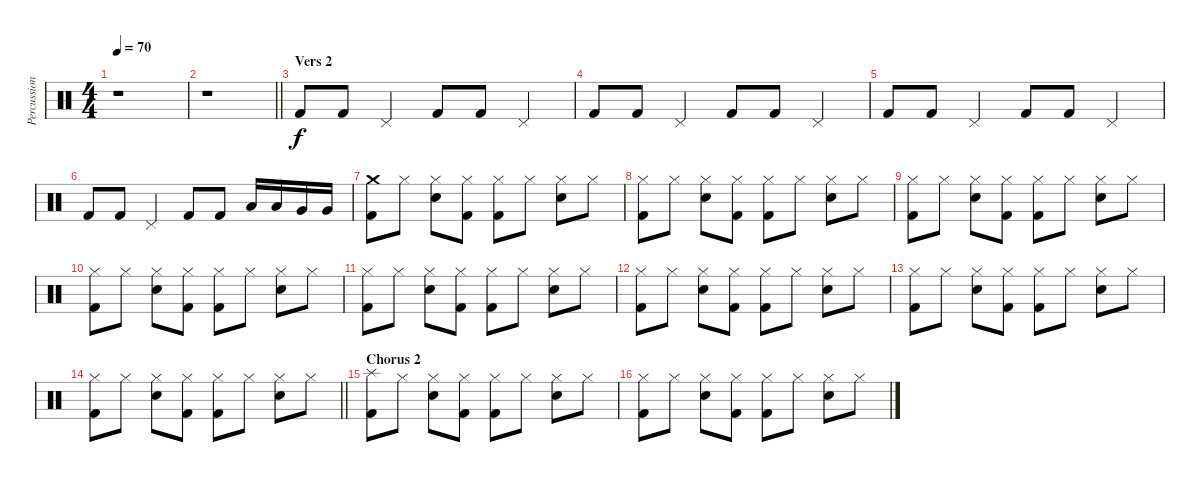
\track ("Percussion" "Percussion") {instrument percussion}
\staff {score}
\articulation defaults
\ts (4 4)
\tempo 70
\clef neutral
\ks c
r.1{dy f} |
\barLineRight lightlight
r.1 |
\section ("" "Vers 2")
"Kick (hit) 2".8 "Kick (hit) 2".8 "Pedal Hi-Hat (hit)".4 "Kick (hit) 2".8 "Kick (hit) 2".8 "Pedal Hi-Hat (hit)".4 |
"Kick (hit) 2".8 "Kick (hit) 2".8 "Pedal Hi-Hat (hit)".4 "Kick (hit) 2".8 "Kick (hit) 2".8 "Pedal Hi-Hat (hit)".4 |
"Kick (hit) 2".8 "Kick (hit) 2".8 "Pedal Hi-Hat (hit)".4 "Kick (hit) 2".8 "Kick (hit) 2".8 "Pedal Hi-Hat (hit)".4 |
"Kick (hit) 2".8 "Kick (hit) 2".8 "Pedal Hi-Hat (hit)".4 "Kick (hit) 2".8 "Kick (hit) 2".8 "Low Tom (hit)".16 "Low Tom (hit)".16 "Very Low Tom (hit)".16 "Very Low Tom (hit)".16 |
("Crash medium (hit)" "Kick (hit) 2").8 "Hi-Hat (closed)".8 ("Hi-Hat (closed)" "Snare (hit) 2").8 ("Hi-Hat (closed)" "Kick (hit) 2").8 ("Hi-Hat (closed)" "Kick (hit) 2").8 "Hi-Hat (closed)".8 ("Hi-Hat (closed)" "Snare (hit) 2").8 "Hi-Hat (closed)".8 |
("Hi-Hat (closed)" "Kick (hit) 2").8 "Hi-Hat (closed)".8 ("Hi-Hat (closed)" "Snare (hit) 2").8 ("Hi-Hat (closed)" "Kick (hit) 2").8 ("Hi-Hat (closed)" "Kick (hit) 2").8 "Hi-Hat (closed)".8 ("Hi-Hat (closed)" "Snare (hit) 2").8 "Hi-Hat (closed)".8 |
("Hi-Hat (closed)" "Kick (hit) 2").8 "Hi-Hat (closed)".8 ("Hi-Hat (closed)" "Snare (hit) 2").8 ("Hi-Hat (closed)" "Kick (hit) 2").8 ("Hi-Hat (closed)" "Kick (hit) 2").8 "Hi-Hat (closed)".8 ("Hi-Hat (closed)" "Snare (hit) 2").8 "Hi-Hat (closed)".8 |
("Hi-Hat (closed)" "Kick (hit) 2").8 "Hi-Hat (closed)".8 ("Hi-Hat (closed)" "Snare (hit) 2").8 ("Hi-Hat (closed)" "Kick (hit) 2").8 ("Hi-Hat (closed)" "Kick (hit) 2").8 "Hi-Hat (closed)".8 ("Hi-Hat (closed)" "Snare (hit) 2").8 "Hi-Hat (closed)".8 |
("Hi-Hat (closed)" "Kick (hit) 2").8 "Hi-Hat (closed)".8 ("Hi-Hat (closed)" "Snare (hit) 2").8 ("Hi-Hat (closed)" "Kick (hit) 2").8 ("Hi-Hat (closed)" "Kick (hit) 2").8 "Hi-Hat (closed)".8 ("Hi-Hat (closed)" "Snare (hit) 2").8 "Hi-Hat (closed)".8 |
("Hi-Hat (closed)" "Kick (hit) 2").8 "Hi-Hat (closed)".8 ("Hi-Hat (closed)" "Snare (hit) 2").8 ("Hi-Hat (closed)" "Kick (hit) 2").8 ("Hi-Hat (closed)" "Kick (hit) 2").8 "Hi-Hat (closed)".8 ("Hi-Hat (closed)" "Snare (hit) 2").8 "Hi-Hat (closed)".8 |
("Hi-Hat (closed)" "Kick (hit) 2").8 "Hi-Hat (closed)".8 ("Hi-Hat (closed)" "Snare (hit) 2").8 ("Hi-Hat (closed)" "Kick (hit) 2").8 ("Hi-Hat (closed)" "Kick (hit) 2").8 "Hi-Hat (closed)".8 ("Hi-Hat (closed)" "Snare (hit) 2").8 "Hi-Hat (closed)".8 |
\barLineRight lightlight
("Hi-Hat (closed)" "Kick (hit) 2").8 "Hi-Hat (closed)".8 ("Hi-Hat (closed)" "Snare (hit) 2").8 ("Hi-Hat (closed)" "Kick (hit) 2").8 ("Hi-Hat (closed)" "Kick (hit) 2").8 "Hi-Hat (closed)".8 ("Hi-Hat (closed)" "Snare (hit) 2").8 "Hi-Hat (closed)".8 |
\section ("" "Chorus 2")
("Splash (hit)" "Kick (hit) 2").8 "Hi-Hat (closed)".8 ("Hi-Hat (closed)" "Snare (hit) 2").8 ("Hi-Hat (closed)" "Kick (hit) 2").8 ("Hi-Hat (closed)" "Kick (hit) 2").8 "Hi-Hat (closed)".8 ("Hi-Hat (closed)" "Snare (hit) 2").8 "Hi-Hat (closed)".8 |
("Hi-Hat (closed)" "Kick (hit) 2").8 "Hi-Hat (closed)".8 ("Hi-Hat (closed)" "Snare (hit) 2").8 ("Hi-Hat (closed)" "Kick (hit) 2").8 ("Hi-Hat (closed)" "Kick (hit) 2").8 "Hi-Hat (closed)".8 ("Hi-Hat (closed)" "Snare (hit) 2").8 "Hi-Hat (closed)".8
